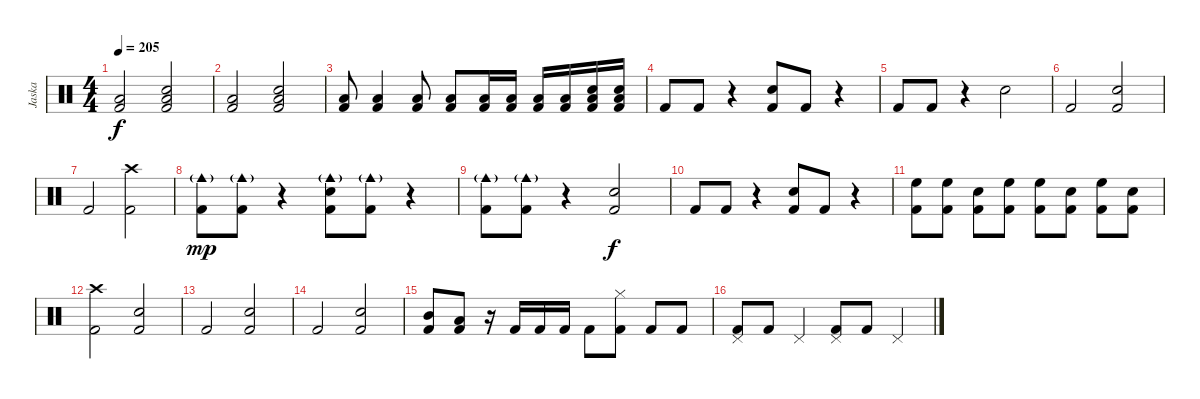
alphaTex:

\track ("Jaska" "Jaska") {instrument percussion}
\staff {score}
\articulation defaults
\ts (4 4)
\tempo 205
\clef neutral
\ks c
("Kick (hit) 2" "Low Tom (hit)").2{dy f} ("Kick (hit) 2" "Snare (hit) 2" "Low Tom (hit)").2 |
("Kick (hit) 2" "Low Tom (hit)").2 ("Kick (hit) 2" "Snare (hit) 2" "Low Tom (hit)").2 |
("Kick (hit) 2" "Low Tom (hit)").8 ("Kick (hit) 2" "Low Tom (hit)").4 ("Kick (hit) 2" "Low Tom (hit)").8 ("Kick (hit) 2" "Low Tom (hit)").8 ("Kick (hit) 2" "Low Tom (hit)").16 ("Kick (hit) 2" "Low Tom (hit)").16 ("Kick (hit) 2" "Low Tom (hit)").16 ("Kick (hit) 2" "Low Tom (hit)").16 ("Kick (hit) 2" "Snare (hit) 2" "Low Tom (hit)").16 ("Kick (hit) 2" "Snare (hit) 2" "Low Tom (hit)").16 |
"Kick (hit) 2".8 "Kick (hit) 2".8 r.4 ("Kick (hit) 2" "Snare (hit) 2").8 "Kick (hit) 2".8 r.4 |
"Kick (hit) 2".8 "Kick (hit) 2".8 r.4 "Snare (hit) 2".2 |
"Kick (hit) 2".2 ("Kick (hit) 2" "Snare (hit) 2").2 |
"Kick (hit) 2".2 ("Kick (hit) 2" "Crash high (hit)").2 |
("Kick (hit) 2" "Cowbell medium (hit)"{g}).8{dy mp} ("Kick (hit) 2" "Cowbell medium (hit)"{g}).8 r.4 ("Kick (hit) 2" "Cowbell medium (hit)"{g} "Snare (hit) 2").8 ("Kick (hit) 2" "Cowbell medium (hit)"{g}).8 r.4 |
("Kick (hit) 2" "Cowbell medium (hit)"{g}).8 ("Kick (hit) 2" "Cowbell medium (hit)"{g}).8 r.4 ("Kick (hit) 2" "Snare (hit) 2").2{dy f} |
"Kick (hit) 2".8 "Kick (hit) 2".8 r.4 ("Kick (hit) 2" "Snare (hit) 2").8 "Kick (hit) 2".8 r.4 |
("Kick (hit) 2" "High Floor Tom (hit)").8 ("Kick (hit) 2" "High Floor Tom (hit)").8 ("Kick (hit) 2" "Snare (hit) 2").8 ("Kick (hit) 2" "High Floor Tom (hit)").8 ("Kick (hit) 2" "High Floor Tom (hit)").8 ("Kick (hit) 2" "Snare (hit) 2").8 ("Kick (hit) 2" "High Floor Tom (hit)").8 ("Kick (hit) 2" "Snare (hit) 2").8 |
("Kick (hit) 2" "Crash high (hit)").2 ("Kick (hit) 2" "Snare (hit) 2").2 |
"Kick (hit) 2".2 ("Kick (hit) 2" "Snare (hit) 2").2 |
"Kick (hit) 2".2 ("Kick (hit) 2" "Snare (hit) 2").2 |
("Kick (hit) 2" "Mid Tom (hit)").8 ("Kick (hit) 2" "Low Tom (hit)").8 r.16 "Kick (hit) 2".16 "Kick (hit) 2".16 "Kick (hit) 2".16 "Kick (hit) 2".8 ("Kick (hit) 2" "Hi-Hat (closed)").8 "Kick (hit) 2".8 "Kick (hit) 2".8 |
("Kick (hit) 2" "Pedal Hi-Hat (hit)").8 "Kick (hit) 2".8 "Pedal Hi-Hat (hit)".4 ("Kick (hit) 2" "Pedal Hi-Hat (hit)").8 "Kick (hit) 2".8 "Pedal Hi-Hat (hit)".4
